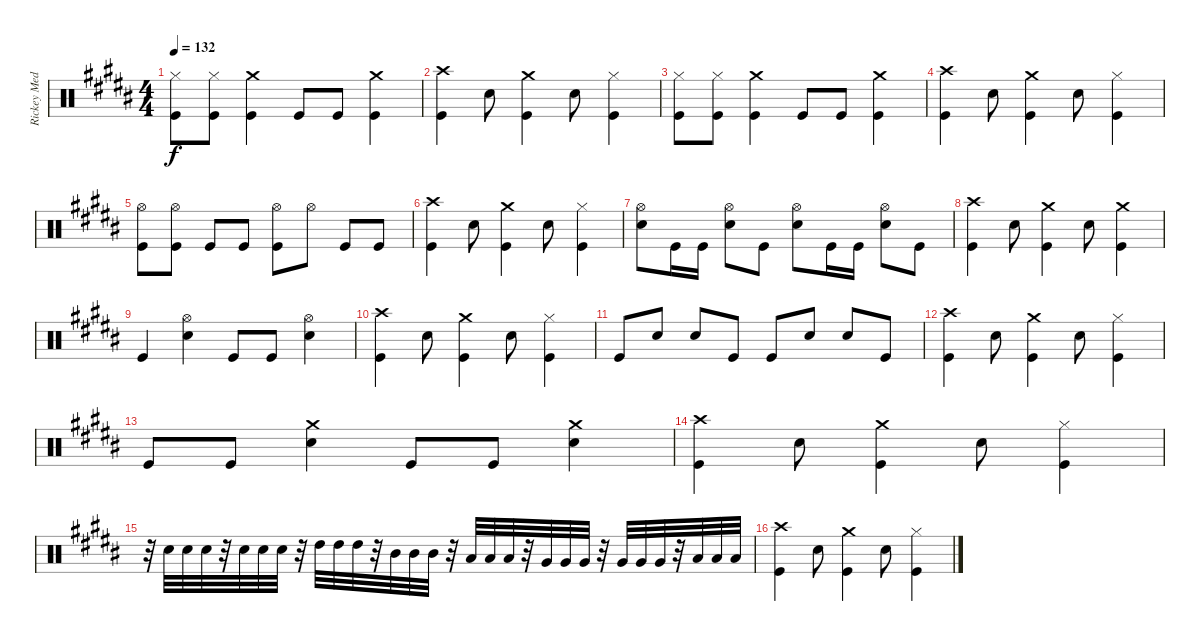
\track ("Rickey Medlocke Drums" "Rickey Med") {instrument percussion}
\staff {score}
\articulation defaults
\ts (4 4)
\tempo 132
\clef neutral
\ks b
("Hi-Hat (closed)" "Kick (hit)").8{dy f} ("Hi-Hat (closed)" "Kick (hit)").8 ("Crash medium (hit)" "Kick (hit)").4 "Kick (hit)".8 "Kick (hit)".8 ("Crash medium (hit)" "Kick (hit)").4 |
("Crash high (hit)" "Kick (hit)").4 "Snare (hit) 2".8 ("Crash medium (hit)" "Kick (hit)").4 "Snare (hit) 2".8 ("Hi-Hat (closed)" "Kick (hit)").4 |
("Hi-Hat (closed)" "Kick (hit)").8 ("Hi-Hat (closed)" "Kick (hit)").8 ("Crash medium (hit)" "Kick (hit)").4 "Kick (hit)".8 "Kick (hit)".8 ("Crash medium (hit)" "Kick (hit)").4 |
("Crash high (hit)" "Kick (hit)").4 "Snare (hit) 2".8 ("Crash medium (hit)" "Kick (hit)").4 "Snare (hit) 2".8 ("Hi-Hat (closed)" "Kick (hit)").4 |
("Hi-Hat (open)" "Kick (hit)").8 ("Hi-Hat (open)" "Kick (hit)").8 "Kick (hit)".8 "Kick (hit)".8 ("Hi-Hat (open)" "Kick (hit)").8 "Hi-Hat (open)".8 "Kick (hit)".8 "Kick (hit)".8 |
("Crash high (hit)" "Kick (hit)").4 "Snare (hit) 2".8 ("Crash medium (hit)" "Kick (hit)").4 "Snare (hit) 2".8 ("Hi-Hat (closed)" "Kick (hit)").4 |
("Hi-Hat (open)" "Snare (hit) 2").8 "Kick (hit)".16 "Kick (hit)".16 ("Hi-Hat (open)" "Snare (hit) 2").8 "Kick (hit)".8 ("Hi-Hat (open)" "Snare (hit) 2").8 "Kick (hit)".16 "Kick (hit)".16 ("Hi-Hat (open)" "Snare (hit) 2").8 "Kick (hit)".8 |
("Crash high (hit)" "Kick (hit)").4 "Snare (hit) 2".8 ("Crash medium (hit)" "Kick (hit)").4 "Snare (hit) 2".8 ("Crash medium (hit)" "Kick (hit)").4 |
"Kick (hit)".4 ("Hi-Hat (open)" "Snare (hit) 2").4 "Kick (hit)".8 "Kick (hit)".8 ("Hi-Hat (open)" "Snare (hit) 2").4 |
("Crash high (hit)" "Kick (hit)").4 "Snare (hit) 2".8 ("Crash medium (hit)" "Kick (hit)").4 "Snare (hit) 2".8 ("Hi-Hat (closed)" "Kick (hit)").4 |
"Kick (hit)".8 "Snare (hit) 2".8 "Snare (hit) 2".8 "Kick (hit)".8 "Kick (hit)".8 "Snare (hit) 2".8 "Snare (hit) 2".8 "Kick (hit)".8 |
("Crash high (hit)" "Kick (hit)").4 "Snare (hit) 2".8 ("Crash medium (hit)" "Kick (hit)").4 "Snare (hit) 2".8 ("Hi-Hat (closed)" "Kick (hit)").4 |
"Kick (hit)".8 "Kick (hit)".8 ("Crash medium (hit)" "Snare (hit) 2").4 "Kick (hit)".8 "Kick (hit)".8 ("Crash medium (hit)" "Snare (hit) 2").4 |
("Crash high (hit)" "Kick (hit)").4 "Snare (hit) 2".8 ("Crash medium (hit)" "Kick (hit)").4 "Snare (hit) 2".8 ("Hi-Hat (closed)" "Kick (hit)").4 |
r.32 "Snare (hit) 2".32 "Snare (hit) 2".32 "Snare (hit) 2".32 r.32 "Snare (hit) 2".32 "Snare (hit) 2".32 "Snare (hit) 2".32 r.32 "High Tom (hit)".32 "High Tom (hit)".32 "High Tom (hit)".32 r.32 "Mid Tom (hit)".32 "Mid Tom (hit)".32 "Mid Tom (hit)".32 r.32 "Low Tom (hit)".32 "Low Tom (hit)".32 "Low Tom (hit)".32 r.32 "Very Low Tom (hit)".32 "Very Low Tom (hit)".32 "Very Low Tom (hit)".32 r.32 "Very Low Tom (hit)".32 "Very Low Tom (hit)".32 "Very Low Tom (hit)".32 r.32 "Low Floor Tom (hit)".32 "Low Floor Tom (hit)".32 "Low Floor Tom (hit)".32 |
("Crash high (hit)" "Kick (hit)").4 "Snare (hit) 2".8 ("Crash medium (hit)" "Kick (hit)").4 "Snare (hit) 2".8 ("Hi-Hat (closed)" "Kick (hit)").4
